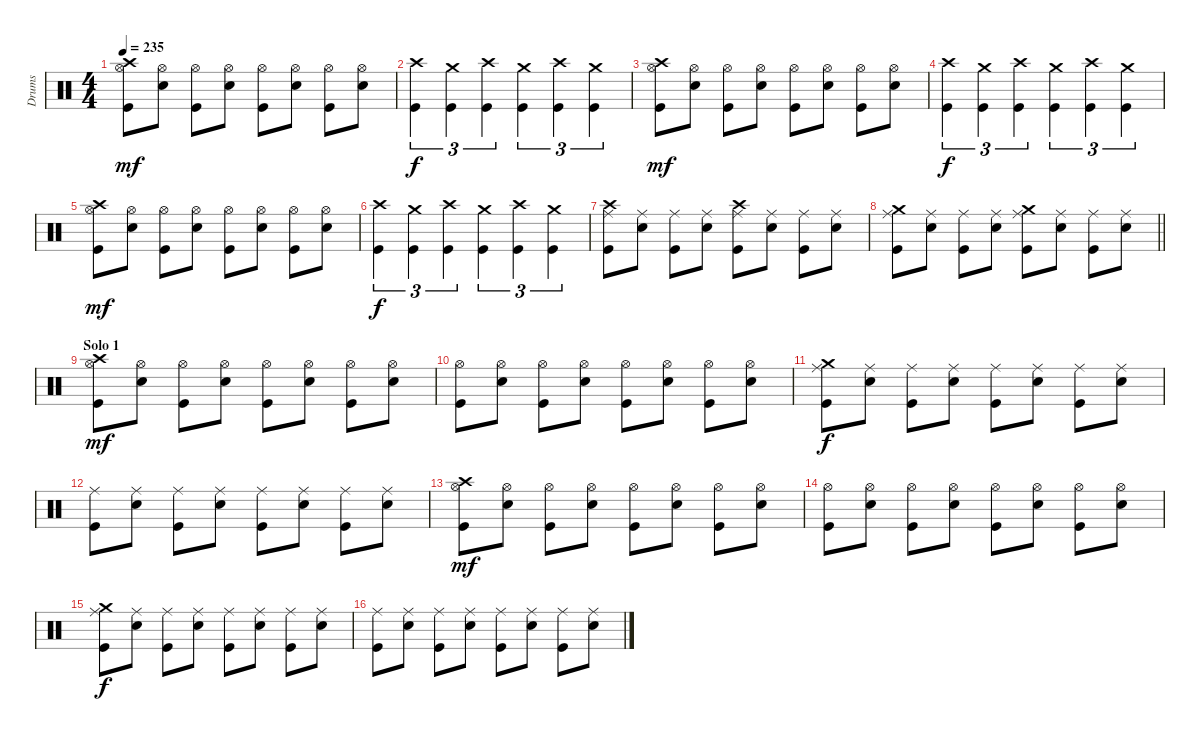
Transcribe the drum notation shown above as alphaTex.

\track ("Drums" "Drums") {instrument percussion}
\staff {score}
\articulation defaults
\ts (4 4)
\tempo 235
\clef neutral
\ks c
("Crash high (hit)" "Hi-Hat (open)" "Kick (hit)").8{dy mf} ("Hi-Hat (open)" "Electric Snare (hit)").8 ("Hi-Hat (open)" "Kick (hit)").8 ("Hi-Hat (open)" "Electric Snare (hit)").8 ("Hi-Hat (open)" "Kick (hit)").8 ("Hi-Hat (open)" "Electric Snare (hit)").8 ("Hi-Hat (open)" "Kick (hit)").8 ("Hi-Hat (open)" "Electric Snare (hit)").8 |
("Crash high (hit)" "Kick (hit)").4{tu (3 2) dy f} ("Crash medium (hit)" "Kick (hit)").4{tu (3 2)} ("Crash high (hit)" "Kick (hit)").4{tu (3 2)} ("Crash medium (hit)" "Kick (hit)").4{tu (3 2)} ("Crash high (hit)" "Kick (hit)").4{tu (3 2)} ("Crash medium (hit)" "Kick (hit)").4{tu (3 2)} |
("Crash high (hit)" "Hi-Hat (open)" "Kick (hit)").8{dy mf} ("Hi-Hat (open)" "Electric Snare (hit)").8 ("Hi-Hat (open)" "Kick (hit)").8 ("Hi-Hat (open)" "Electric Snare (hit)").8 ("Hi-Hat (open)" "Kick (hit)").8 ("Hi-Hat (open)" "Electric Snare (hit)").8 ("Hi-Hat (open)" "Kick (hit)").8 ("Hi-Hat (open)" "Electric Snare (hit)").8 |
("Crash high (hit)" "Kick (hit)").4{tu (3 2) dy f} ("Crash medium (hit)" "Kick (hit)").4{tu (3 2)} ("Crash high (hit)" "Kick (hit)").4{tu (3 2)} ("Crash medium (hit)" "Kick (hit)").4{tu (3 2)} ("Crash high (hit)" "Kick (hit)").4{tu (3 2)} ("Crash medium (hit)" "Kick (hit)").4{tu (3 2)} |
("Crash high (hit)" "Hi-Hat (open)" "Kick (hit)").8{dy mf} ("Hi-Hat (open)" "Electric Snare (hit)").8 ("Hi-Hat (open)" "Kick (hit)").8 ("Hi-Hat (open)" "Electric Snare (hit)").8 ("Hi-Hat (open)" "Kick (hit)").8 ("Hi-Hat (open)" "Electric Snare (hit)").8 ("Hi-Hat (open)" "Kick (hit)").8 ("Hi-Hat (open)" "Electric Snare (hit)").8 |
("Crash high (hit)" "Kick (hit)").4{tu (3 2) dy f} ("Crash medium (hit)" "Kick (hit)").4{tu (3 2)} ("Crash high (hit)" "Kick (hit)").4{tu (3 2)} ("Crash medium (hit)" "Kick (hit)").4{tu (3 2)} ("Crash high (hit)" "Kick (hit)").4{tu (3 2)} ("Crash medium (hit)" "Kick (hit)").4{tu (3 2)} |
("Crash high (hit)" "Ride (middle)" "Kick (hit)").8 ("Ride (middle)" "Electric Snare (hit)").8 ("Ride (middle)" "Kick (hit)").8 ("Ride (middle)" "Electric Snare (hit)").8 ("Crash high (hit)" "Ride (middle)" "Kick (hit)").8 ("Ride (middle)" "Electric Snare (hit)").8 ("Ride (middle)" "Kick (hit)").8 ("Ride (middle)" "Electric Snare (hit)").8 |
\barLineRight lightlight
("Crash medium (hit)" "Ride (middle)" "Kick (hit)").8 ("Ride (middle)" "Electric Snare (hit)").8 ("Ride (middle)" "Kick (hit)").8 ("Ride (middle)" "Electric Snare (hit)").8 ("Crash medium (hit)" "Ride (middle)" "Kick (hit)").8 ("Ride (middle)" "Electric Snare (hit)").8 ("Ride (middle)" "Kick (hit)").8 ("Ride (middle)" "Electric Snare (hit)").8 |
\section ("" "Solo 1")
("Crash high (hit)" "Hi-Hat (open)" "Kick (hit)").8{dy mf} ("Hi-Hat (open)" "Electric Snare (hit)").8 ("Hi-Hat (open)" "Kick (hit)").8 ("Hi-Hat (open)" "Electric Snare (hit)").8 ("Hi-Hat (open)" "Kick (hit)").8 ("Hi-Hat (open)" "Electric Snare (hit)").8 ("Hi-Hat (open)" "Kick (hit)").8 ("Hi-Hat (open)" "Electric Snare (hit)").8 |
("Hi-Hat (open)" "Kick (hit)").8 ("Hi-Hat (open)" "Electric Snare (hit)").8 ("Hi-Hat (open)" "Kick (hit)").8 ("Hi-Hat (open)" "Electric Snare (hit)").8 ("Hi-Hat (open)" "Kick (hit)").8 ("Hi-Hat (open)" "Electric Snare (hit)").8 ("Hi-Hat (open)" "Kick (hit)").8 ("Hi-Hat (open)" "Electric Snare (hit)").8 |
("Crash medium (hit)" "Ride (middle)" "Kick (hit)").8{dy f} ("Ride (middle)" "Electric Snare (hit)").8 ("Ride (middle)" "Kick (hit)").8 ("Ride (middle)" "Electric Snare (hit)").8 ("Ride (middle)" "Kick (hit)").8 ("Ride (middle)" "Electric Snare (hit)").8 ("Ride (middle)" "Kick (hit)").8 ("Ride (middle)" "Electric Snare (hit)").8 |
("Ride (middle)" "Kick (hit)").8 ("Ride (middle)" "Electric Snare (hit)").8 ("Ride (middle)" "Kick (hit)").8 ("Ride (middle)" "Electric Snare (hit)").8 ("Ride (middle)" "Kick (hit)").8 ("Ride (middle)" "Electric Snare (hit)").8 ("Ride (middle)" "Kick (hit)").8 ("Ride (middle)" "Electric Snare (hit)").8 |
("Crash high (hit)" "Hi-Hat (open)" "Kick (hit)").8{dy mf} ("Hi-Hat (open)" "Electric Snare (hit)").8 ("Hi-Hat (open)" "Kick (hit)").8 ("Hi-Hat (open)" "Electric Snare (hit)").8 ("Hi-Hat (open)" "Kick (hit)").8 ("Hi-Hat (open)" "Electric Snare (hit)").8 ("Hi-Hat (open)" "Kick (hit)").8 ("Hi-Hat (open)" "Electric Snare (hit)").8 |
("Hi-Hat (open)" "Kick (hit)").8 ("Hi-Hat (open)" "Electric Snare (hit)").8 ("Hi-Hat (open)" "Kick (hit)").8 ("Hi-Hat (open)" "Electric Snare (hit)").8 ("Hi-Hat (open)" "Kick (hit)").8 ("Hi-Hat (open)" "Electric Snare (hit)").8 ("Hi-Hat (open)" "Kick (hit)").8 ("Hi-Hat (open)" "Electric Snare (hit)").8 |
("Crash medium (hit)" "Ride (middle)" "Kick (hit)").8{dy f} ("Ride (middle)" "Electric Snare (hit)").8 ("Ride (middle)" "Kick (hit)").8 ("Ride (middle)" "Electric Snare (hit)").8 ("Ride (middle)" "Kick (hit)").8 ("Ride (middle)" "Electric Snare (hit)").8 ("Ride (middle)" "Kick (hit)").8 ("Ride (middle)" "Electric Snare (hit)").8 |
("Ride (middle)" "Kick (hit)").8 ("Ride (middle)" "Electric Snare (hit)").8 ("Ride (middle)" "Kick (hit)").8 ("Ride (middle)" "Electric Snare (hit)").8 ("Ride (middle)" "Kick (hit)").8 ("Ride (middle)" "Electric Snare (hit)").8 ("Ride (middle)" "Kick (hit)").8 ("Ride (middle)" "Electric Snare (hit)").8
